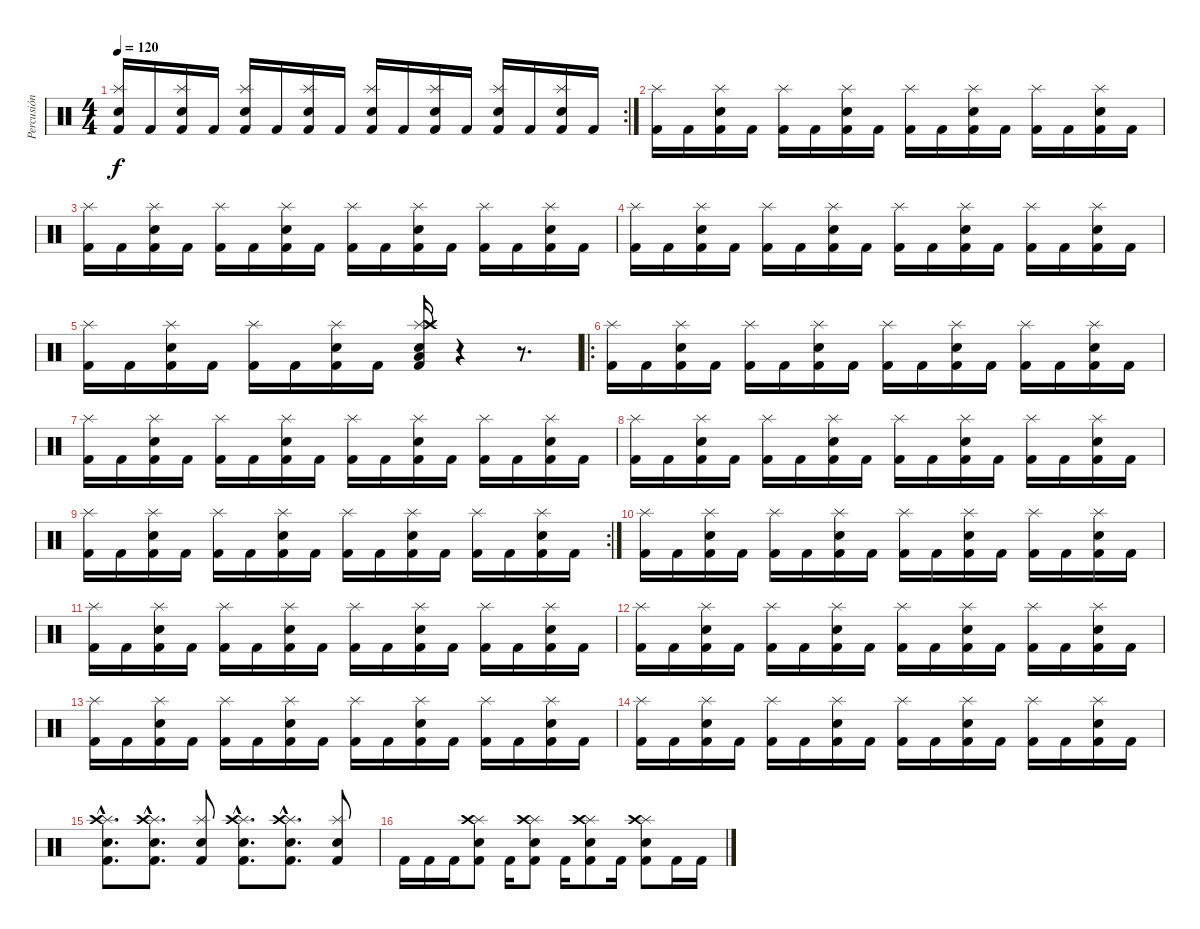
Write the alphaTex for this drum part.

\track ("Percusión" "Percusión") {instrument percussion}
\staff {score}
\articulation defaults
\rc 2
\ts (4 4)
\tempo 120
\clef neutral
\ks c
("Kick (hit) 2" "Splash (hit)" "Electric Snare (hit)").16{dy f} "Kick (hit) 2".16 ("Kick (hit) 2" "Splash (hit)" "Electric Snare (hit)").16 "Kick (hit) 2".16 ("Kick (hit) 2" "Splash (hit)" "Electric Snare (hit)").16 "Kick (hit) 2".16 ("Kick (hit) 2" "Splash (hit)" "Electric Snare (hit)").16 "Kick (hit) 2".16 ("Kick (hit) 2" "Splash (hit)" "Electric Snare (hit)").16 "Kick (hit) 2".16 ("Kick (hit) 2" "Splash (hit)" "Electric Snare (hit)").16 "Kick (hit) 2".16 ("Kick (hit) 2" "Splash (hit)" "Electric Snare (hit)").16 "Kick (hit) 2".16 ("Kick (hit) 2" "Splash (hit)" "Electric Snare (hit)").16 "Kick (hit) 2".16 |
("Kick (hit) 2" "Splash (hit)").16 "Kick (hit) 2".16 ("Kick (hit) 2" "Splash (hit)" "Electric Snare (hit)").16 "Kick (hit) 2".16 ("Kick (hit) 2" "Splash (hit)").16 "Kick (hit) 2".16 ("Kick (hit) 2" "Splash (hit)" "Electric Snare (hit)").16 "Kick (hit) 2".16 ("Kick (hit) 2" "Splash (hit)").16 "Kick (hit) 2".16 ("Kick (hit) 2" "Splash (hit)" "Electric Snare (hit)").16 "Kick (hit) 2".16 ("Kick (hit) 2" "Splash (hit)").16 "Kick (hit) 2".16 ("Kick (hit) 2" "Splash (hit)" "Electric Snare (hit)").16 "Kick (hit) 2".16 |
("Kick (hit) 2" "Splash (hit)").16 "Kick (hit) 2".16 ("Kick (hit) 2" "Splash (hit)" "Electric Snare (hit)").16 "Kick (hit) 2".16 ("Kick (hit) 2" "Splash (hit)").16 "Kick (hit) 2".16 ("Kick (hit) 2" "Splash (hit)" "Electric Snare (hit)").16 "Kick (hit) 2".16 ("Kick (hit) 2" "Splash (hit)").16 "Kick (hit) 2".16 ("Kick (hit) 2" "Splash (hit)" "Electric Snare (hit)").16 "Kick (hit) 2".16 ("Kick (hit) 2" "Splash (hit)").16 "Kick (hit) 2".16 ("Kick (hit) 2" "Splash (hit)" "Electric Snare (hit)").16 "Kick (hit) 2".16 |
("Kick (hit) 2" "Splash (hit)").16 "Kick (hit) 2".16 ("Kick (hit) 2" "Splash (hit)" "Electric Snare (hit)").16 "Kick (hit) 2".16 ("Kick (hit) 2" "Splash (hit)").16 "Kick (hit) 2".16 ("Kick (hit) 2" "Splash (hit)" "Electric Snare (hit)").16 "Kick (hit) 2".16 ("Kick (hit) 2" "Splash (hit)").16 "Kick (hit) 2".16 ("Kick (hit) 2" "Splash (hit)" "Electric Snare (hit)").16 "Kick (hit) 2".16 ("Kick (hit) 2" "Splash (hit)").16 "Kick (hit) 2".16 ("Kick (hit) 2" "Splash (hit)" "Electric Snare (hit)").16 "Kick (hit) 2".16 |
("Kick (hit) 2" "Splash (hit)").16 "Kick (hit) 2".16 ("Kick (hit) 2" "Splash (hit)" "Electric Snare (hit)").16 "Kick (hit) 2".16 ("Kick (hit) 2" "Splash (hit)").16 "Kick (hit) 2".16 ("Kick (hit) 2" "Splash (hit)" "Electric Snare (hit)").16 "Kick (hit) 2".16 ("Kick (hit) 2" "Splash (hit)" "Electric Snare (hit)" "Crash high (hit)" "Low Tom (hit)" "Splash (hit)").16 r.4 r.8{d} |
\ro
("Kick (hit) 2" "Splash (hit)").16 "Kick (hit) 2".16 ("Kick (hit) 2" "Splash (hit)" "Electric Snare (hit)").16 "Kick (hit) 2".16 ("Kick (hit) 2" "Splash (hit)").16 "Kick (hit) 2".16 ("Kick (hit) 2" "Splash (hit)" "Electric Snare (hit)").16 "Kick (hit) 2".16 ("Kick (hit) 2" "Splash (hit)").16 "Kick (hit) 2".16 ("Kick (hit) 2" "Splash (hit)" "Electric Snare (hit)").16 "Kick (hit) 2".16 ("Kick (hit) 2" "Splash (hit)").16 "Kick (hit) 2".16 ("Kick (hit) 2" "Splash (hit)" "Electric Snare (hit)").16 "Kick (hit) 2".16 |
("Kick (hit) 2" "Splash (hit)").16 "Kick (hit) 2".16 ("Kick (hit) 2" "Splash (hit)" "Electric Snare (hit)").16 "Kick (hit) 2".16 ("Kick (hit) 2" "Splash (hit)").16 "Kick (hit) 2".16 ("Kick (hit) 2" "Splash (hit)" "Electric Snare (hit)").16 "Kick (hit) 2".16 ("Kick (hit) 2" "Splash (hit)").16 "Kick (hit) 2".16 ("Kick (hit) 2" "Splash (hit)" "Electric Snare (hit)").16 "Kick (hit) 2".16 ("Kick (hit) 2" "Splash (hit)").16 "Kick (hit) 2".16 ("Kick (hit) 2" "Splash (hit)" "Electric Snare (hit)").16 "Kick (hit) 2".16 |
("Kick (hit) 2" "Splash (hit)").16 "Kick (hit) 2".16 ("Kick (hit) 2" "Splash (hit)" "Electric Snare (hit)").16 "Kick (hit) 2".16 ("Kick (hit) 2" "Splash (hit)").16 "Kick (hit) 2".16 ("Kick (hit) 2" "Splash (hit)" "Electric Snare (hit)").16 "Kick (hit) 2".16 ("Kick (hit) 2" "Splash (hit)").16 "Kick (hit) 2".16 ("Kick (hit) 2" "Splash (hit)" "Electric Snare (hit)").16 "Kick (hit) 2".16 ("Kick (hit) 2" "Splash (hit)").16 "Kick (hit) 2".16 ("Kick (hit) 2" "Splash (hit)" "Electric Snare (hit)").16 "Kick (hit) 2".16 |
\rc 2
("Kick (hit) 2" "Splash (hit)").16 "Kick (hit) 2".16 ("Kick (hit) 2" "Splash (hit)" "Electric Snare (hit)").16 "Kick (hit) 2".16 ("Kick (hit) 2" "Splash (hit)").16 "Kick (hit) 2".16 ("Kick (hit) 2" "Splash (hit)" "Electric Snare (hit)").16 "Kick (hit) 2".16 ("Kick (hit) 2" "Splash (hit)").16 "Kick (hit) 2".16 ("Kick (hit) 2" "Splash (hit)" "Electric Snare (hit)").16 "Kick (hit) 2".16 ("Kick (hit) 2" "Splash (hit)").16 "Kick (hit) 2".16 ("Kick (hit) 2" "Splash (hit)" "Electric Snare (hit)").16 "Kick (hit) 2".16 |
("Kick (hit) 2" "Splash (hit)").16 "Kick (hit) 2".16 ("Kick (hit) 2" "Splash (hit)" "Electric Snare (hit)").16 "Kick (hit) 2".16 ("Kick (hit) 2" "Splash (hit)").16 "Kick (hit) 2".16 ("Kick (hit) 2" "Splash (hit)" "Electric Snare (hit)").16 "Kick (hit) 2".16 ("Kick (hit) 2" "Splash (hit)").16 "Kick (hit) 2".16 ("Kick (hit) 2" "Splash (hit)" "Electric Snare (hit)").16 "Kick (hit) 2".16 ("Kick (hit) 2" "Splash (hit)").16 "Kick (hit) 2".16 ("Kick (hit) 2" "Splash (hit)" "Electric Snare (hit)").16 "Kick (hit) 2".16 |
("Kick (hit) 2" "Splash (hit)").16 "Kick (hit) 2".16 ("Kick (hit) 2" "Splash (hit)" "Electric Snare (hit)").16 "Kick (hit) 2".16 ("Kick (hit) 2" "Splash (hit)").16 "Kick (hit) 2".16 ("Kick (hit) 2" "Splash (hit)" "Electric Snare (hit)").16 "Kick (hit) 2".16 ("Kick (hit) 2" "Splash (hit)").16 "Kick (hit) 2".16 ("Kick (hit) 2" "Splash (hit)" "Electric Snare (hit)").16 "Kick (hit) 2".16 ("Kick (hit) 2" "Splash (hit)").16 "Kick (hit) 2".16 ("Kick (hit) 2" "Splash (hit)" "Electric Snare (hit)").16 "Kick (hit) 2".16 |
("Kick (hit) 2" "Splash (hit)").16 "Kick (hit) 2".16 ("Kick (hit) 2" "Splash (hit)" "Electric Snare (hit)").16 "Kick (hit) 2".16 ("Kick (hit) 2" "Splash (hit)").16 "Kick (hit) 2".16 ("Kick (hit) 2" "Splash (hit)" "Electric Snare (hit)").16 "Kick (hit) 2".16 ("Kick (hit) 2" "Splash (hit)").16 "Kick (hit) 2".16 ("Kick (hit) 2" "Splash (hit)" "Electric Snare (hit)").16 "Kick (hit) 2".16 ("Kick (hit) 2" "Splash (hit)").16 "Kick (hit) 2".16 ("Kick (hit) 2" "Splash (hit)" "Electric Snare (hit)").16 "Kick (hit) 2".16 |
("Kick (hit) 2" "Splash (hit)").16 "Kick (hit) 2".16 ("Kick (hit) 2" "Splash (hit)" "Electric Snare (hit)").16 "Kick (hit) 2".16 ("Kick (hit) 2" "Splash (hit)").16 "Kick (hit) 2".16 ("Kick (hit) 2" "Splash (hit)" "Electric Snare (hit)").16 "Kick (hit) 2".16 ("Kick (hit) 2" "Splash (hit)").16 "Kick (hit) 2".16 ("Kick (hit) 2" "Splash (hit)" "Electric Snare (hit)").16 "Kick (hit) 2".16 ("Kick (hit) 2" "Splash (hit)").16 "Kick (hit) 2".16 ("Kick (hit) 2" "Splash (hit)" "Electric Snare (hit)").16 "Kick (hit) 2".16 |
("Kick (hit) 2" "Splash (hit)").16 "Kick (hit) 2".16 ("Kick (hit) 2" "Splash (hit)" "Electric Snare (hit)").16 "Kick (hit) 2".16 ("Kick (hit) 2" "Splash (hit)").16 "Kick (hit) 2".16 ("Kick (hit) 2" "Splash (hit)" "Electric Snare (hit)").16 "Kick (hit) 2".16 ("Kick (hit) 2" "Splash (hit)").16 "Kick (hit) 2".16 ("Kick (hit) 2" "Splash (hit)" "Electric Snare (hit)").16 "Kick (hit) 2".16 ("Kick (hit) 2" "Splash (hit)").16 "Kick (hit) 2".16 ("Kick (hit) 2" "Splash (hit)" "Electric Snare (hit)").16 "Kick (hit) 2".16 |
("Electric Snare (hit)"{hac} "Splash (hit)"{hac} "Crash high (hit)"{hac} "Kick (hit) 2"{hac}).8{d} ("Electric Snare (hit)"{hac} "Splash (hit)"{hac} "Kick (hit) 2"{hac} "Crash high (hit)"{hac}).8{d} ("Electric Snare (hit)" "Splash (hit)" "Kick (hit) 2").8 ("Electric Snare (hit)"{hac} "Splash (hit)"{hac} "Kick (hit) 2"{hac} "Crash high (hit)"{hac}).8{d} ("Electric Snare (hit)"{hac} "Splash (hit)"{hac} "Kick (hit) 2"{hac} "Crash high (hit)"{hac}).8{d} ("Electric Snare (hit)" "Splash (hit)" "Kick (hit) 2").8 |
"Kick (hit) 2".16 "Kick (hit) 2".16 "Kick (hit) 2".16 ("Kick (hit) 2" "Splash (hit)" "Crash high (hit)" "Electric Snare (hit)").8 "Kick (hit) 2".16 ("Kick (hit) 2" "Splash (hit)" "Crash high (hit)" "Electric Snare (hit)").8 "Kick (hit) 2".16 ("Kick (hit) 2" "Splash (hit)" "Crash high (hit)" "Electric Snare (hit)").8 "Kick (hit) 2".16 ("Kick (hit) 2" "Splash (hit)" "Crash high (hit)" "Electric Snare (hit)").8 "Kick (hit) 2".16 "Kick (hit) 2".16
